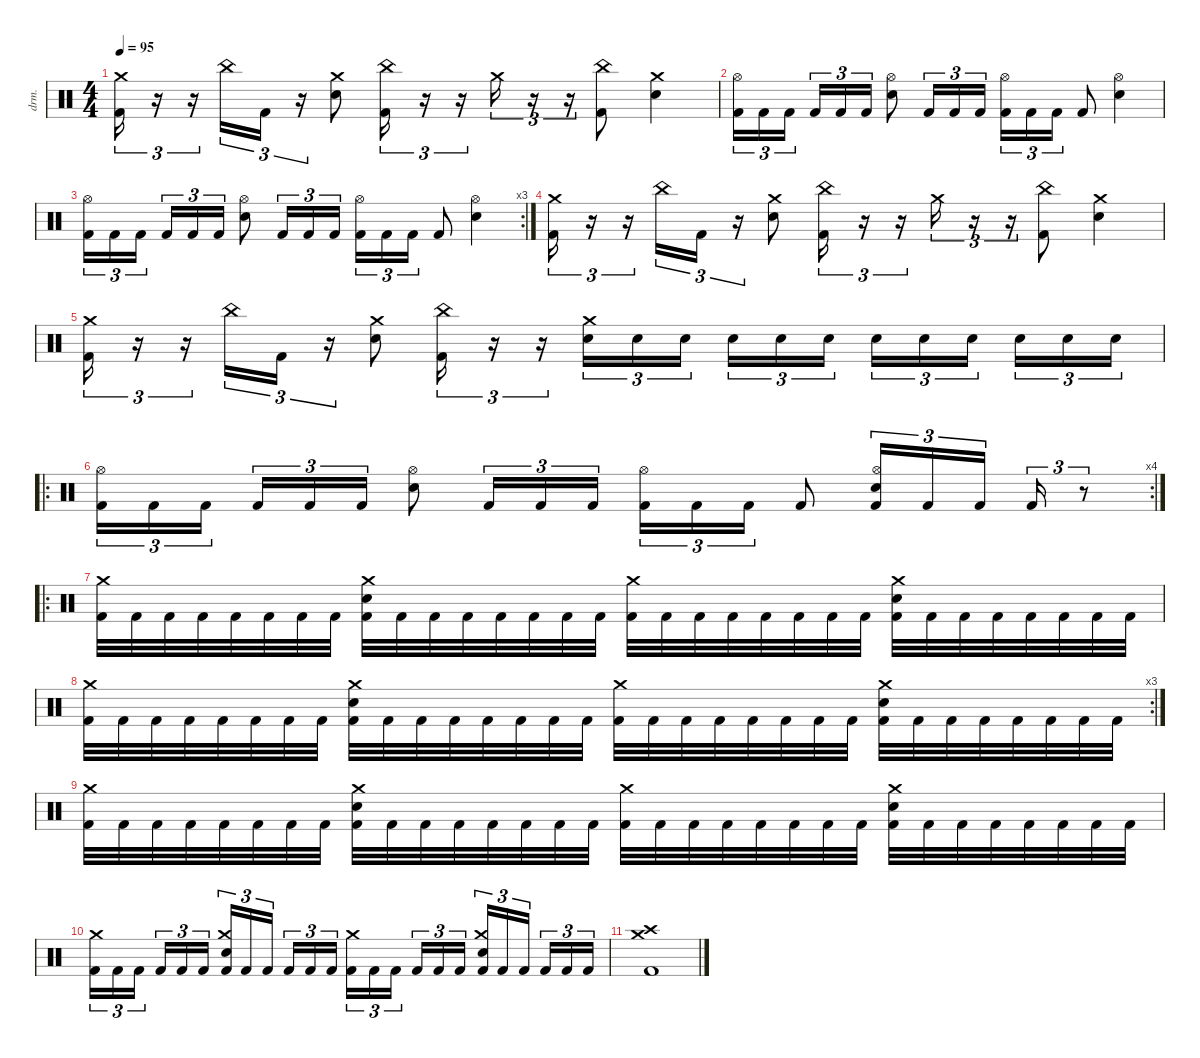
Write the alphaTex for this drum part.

\defaultSystemsLayout 4
\hideDynamics
\bracketExtendMode nobrackets
\otherSystemsTrackNameOrientation horizontal
\track ("FATTY!" "drm.") {instrument percussion}
\staff {score}
\articulation defaults
\ts (4 4)
\tempo 95
\clef neutral
\ks c
("Crash medium (hit)" "Kick (hit) 2").16{tu (3 2) dy f beam Down} r.16{tu (3 2) beam Down} r.16{tu (3 2) beam Down} "China (hit)".16{tu (3 2) beam Down} "Kick (hit) 2".16{tu (3 2) beam Down} r.16{tu (3 2) beam Down} ("Crash medium (hit)" "Snare (hit) 2").8{beam Down} ("China (hit)" "Kick (hit) 2").16{tu (3 2) beam Down} r.16{tu (3 2) beam Down} r.16{tu (3 2) beam Down} "Crash medium (hit)".16{tu (3 2) beam Down} r.16{tu (3 2) beam Down} r.16{tu (3 2) beam Down} ("China (hit)" "Kick (hit) 2").8{beam Down} ("Crash medium (hit)" "Snare (hit) 2").4{beam Down} |
("Hi-Hat (open)" "Kick (hit) 2").16{tu (3 2) beam Down} "Kick (hit) 2".16{tu (3 2) beam Down} "Kick (hit) 2".16{tu (3 2) beam Down} "Kick (hit) 2".16{tu (3 2) beam Up} "Kick (hit) 2".16{tu (3 2) beam Up} "Kick (hit) 2".16{tu (3 2) beam Up} ("Hi-Hat (open)" "Snare (hit) 2").8{beam Down} "Kick (hit) 2".16{tu (3 2) beam Up} "Kick (hit) 2".16{tu (3 2) beam Up} "Kick (hit) 2".16{tu (3 2) beam Up} ("Hi-Hat (open)" "Kick (hit) 2").16{tu (3 2) beam Down} "Kick (hit) 2".16{tu (3 2) beam Down} "Kick (hit) 2".16{tu (3 2) beam Down} "Kick (hit) 2".8{beam Up} ("Hi-Hat (open)" "Snare (hit) 2").4{beam Down} |
\rc 3
("Hi-Hat (open)" "Kick (hit) 2").16{tu (3 2) beam Down} "Kick (hit) 2".16{tu (3 2) beam Down} "Kick (hit) 2".16{tu (3 2) beam Down} "Kick (hit) 2".16{tu (3 2) beam Up} "Kick (hit) 2".16{tu (3 2) beam Up} "Kick (hit) 2".16{tu (3 2) beam Up} ("Hi-Hat (open)" "Snare (hit) 2").8{beam Down} "Kick (hit) 2".16{tu (3 2) beam Up} "Kick (hit) 2".16{tu (3 2) beam Up} "Kick (hit) 2".16{tu (3 2) beam Up} ("Hi-Hat (open)" "Kick (hit) 2").16{tu (3 2) beam Down} "Kick (hit) 2".16{tu (3 2) beam Down} "Kick (hit) 2".16{tu (3 2) beam Down} "Kick (hit) 2".8{beam Up} ("Hi-Hat (open)" "Snare (hit) 2").4{beam Down} |
("Crash medium (hit)" "Kick (hit) 2").16{tu (3 2) beam Down} r.16{tu (3 2) beam Down} r.16{tu (3 2) beam Down} "China (hit)".16{tu (3 2) beam Down} "Kick (hit) 2".16{tu (3 2) beam Down} r.16{tu (3 2) beam Down} ("Crash medium (hit)" "Snare (hit) 2").8{beam Down} ("China (hit)" "Kick (hit) 2").16{tu (3 2) beam Down} r.16{tu (3 2) beam Down} r.16{tu (3 2) beam Down} "Crash medium (hit)".16{tu (3 2) beam Down} r.16{tu (3 2) beam Down} r.16{tu (3 2) beam Down} ("China (hit)" "Kick (hit) 2").8{beam Down} ("Crash medium (hit)" "Snare (hit) 2").4{beam Down} |
("Crash medium (hit)" "Kick (hit) 2").16{tu (3 2) beam Down} r.16{tu (3 2) beam Down} r.16{tu (3 2) beam Down} "China (hit)".16{tu (3 2) beam Down} "Kick (hit) 2".16{tu (3 2) beam Down} r.16{tu (3 2) beam Down} ("Crash medium (hit)" "Snare (hit) 2").8{beam Down} ("China (hit)" "Kick (hit) 2").16{tu (3 2) beam Down} r.16{tu (3 2) beam Down} r.16{tu (3 2) beam Down} ("Crash medium (hit)" "Snare (hit) 2").16{tu (3 2) beam Down} "Snare (hit) 2".16{tu (3 2) beam Down} "Snare (hit) 2".16{tu (3 2) beam Down} "Snare (hit) 2".16{tu (3 2) beam Down} "Snare (hit) 2".16{tu (3 2) beam Down} "Snare (hit) 2".16{tu (3 2) beam Down} "Snare (hit) 2".16{tu (3 2) beam Down} "Snare (hit) 2".16{tu (3 2) beam Down} "Snare (hit) 2".16{tu (3 2) beam Down} "Snare (hit) 2".16{tu (3 2) beam Down} "Snare (hit) 2".16{tu (3 2) beam Down} "Snare (hit) 2".16{tu (3 2) beam Down} |
\ro
\rc 4
("Hi-Hat (open)" "Kick (hit) 2").16{tu (3 2) beam Down} "Kick (hit) 2".16{tu (3 2) beam Down} "Kick (hit) 2".16{tu (3 2) beam Down} "Kick (hit) 2".16{tu (3 2) beam Up} "Kick (hit) 2".16{tu (3 2) beam Up} "Kick (hit) 2".16{tu (3 2) beam Up} ("Hi-Hat (open)" "Snare (hit) 2").8{beam Down} "Kick (hit) 2".16{tu (3 2) beam Up} "Kick (hit) 2".16{tu (3 2) beam Up} "Kick (hit) 2".16{tu (3 2) beam Up} ("Hi-Hat (open)" "Kick (hit) 2").16{tu (3 2) beam Down} "Kick (hit) 2".16{tu (3 2) beam Down} "Kick (hit) 2".16{tu (3 2) beam Down} "Kick (hit) 2".8{beam Up} ("Hi-Hat (open)" "Snare (hit) 2" "Kick (hit) 2").16{tu (3 2) beam Up} "Kick (hit) 2".16{tu (3 2) beam Up} "Kick (hit) 2".16{tu (3 2) beam Up} "Kick (hit) 2".16{tu (3 2) beam Up} r.8{tu (3 2) beam Up} |
\ro
("Crash medium (hit)" "Kick (hit) 2").32{beam Down} "Kick (hit) 2".32{beam Down} "Kick (hit) 2".32{beam Down} "Kick (hit) 2".32{beam Down} "Kick (hit) 2".32{beam Down} "Kick (hit) 2".32{beam Down} "Kick (hit) 2".32{beam Down} "Kick (hit) 2".32{beam Down} ("Crash medium (hit)" "Snare (hit) 2" "Kick (hit) 2").32{beam Down} "Kick (hit) 2".32{beam Down} "Kick (hit) 2".32{beam Down} "Kick (hit) 2".32{beam Down} "Kick (hit) 2".32{beam Down} "Kick (hit) 2".32{beam Down} "Kick (hit) 2".32{beam Down} "Kick (hit) 2".32{beam Down} ("Crash medium (hit)" "Kick (hit) 2").32{beam Down} "Kick (hit) 2".32{beam Down} "Kick (hit) 2".32{beam Down} "Kick (hit) 2".32{beam Down} "Kick (hit) 2".32{beam Down} "Kick (hit) 2".32{beam Down} "Kick (hit) 2".32{beam Down} "Kick (hit) 2".32{beam Down} ("Crash medium (hit)" "Snare (hit) 2" "Kick (hit) 2").32{beam Down} "Kick (hit) 2".32{beam Down} "Kick (hit) 2".32{beam Down} "Kick (hit) 2".32{beam Down} "Kick (hit) 2".32{beam Down} "Kick (hit) 2".32{beam Down} "Kick (hit) 2".32{beam Down} "Kick (hit) 2".32{beam Down} |
\rc 3
("Crash medium (hit)" "Kick (hit) 2").32{beam Down} "Kick (hit) 2".32{beam Down} "Kick (hit) 2".32{beam Down} "Kick (hit) 2".32{beam Down} "Kick (hit) 2".32{beam Down} "Kick (hit) 2".32{beam Down} "Kick (hit) 2".32{beam Down} "Kick (hit) 2".32{beam Down} ("Crash medium (hit)" "Snare (hit) 2" "Kick (hit) 2").32{beam Down} "Kick (hit) 2".32{beam Down} "Kick (hit) 2".32{beam Down} "Kick (hit) 2".32{beam Down} "Kick (hit) 2".32{beam Down} "Kick (hit) 2".32{beam Down} "Kick (hit) 2".32{beam Down} "Kick (hit) 2".32{beam Down} ("Crash medium (hit)" "Kick (hit) 2").32{beam Down} "Kick (hit) 2".32{beam Down} "Kick (hit) 2".32{beam Down} "Kick (hit) 2".32{beam Down} "Kick (hit) 2".32{beam Down} "Kick (hit) 2".32{beam Down} "Kick (hit) 2".32{beam Down} "Kick (hit) 2".32{beam Down} ("Crash medium (hit)" "Snare (hit) 2" "Kick (hit) 2").32{beam Down} "Kick (hit) 2".32{beam Down} "Kick (hit) 2".32{beam Down} "Kick (hit) 2".32{beam Down} "Kick (hit) 2".32{beam Down} "Kick (hit) 2".32{beam Down} "Kick (hit) 2".32{beam Down} "Kick (hit) 2".32{beam Down} |
("Crash medium (hit)" "Kick (hit) 2").32{beam Down} "Kick (hit) 2".32{beam Down} "Kick (hit) 2".32{beam Down} "Kick (hit) 2".32{beam Down} "Kick (hit) 2".32{beam Down} "Kick (hit) 2".32{beam Down} "Kick (hit) 2".32{beam Down} "Kick (hit) 2".32{beam Down} ("Crash medium (hit)" "Snare (hit) 2" "Kick (hit) 2").32{beam Down} "Kick (hit) 2".32{beam Down} "Kick (hit) 2".32{beam Down} "Kick (hit) 2".32{beam Down} "Kick (hit) 2".32{beam Down} "Kick (hit) 2".32{beam Down} "Kick (hit) 2".32{beam Down} "Kick (hit) 2".32{beam Down} ("Crash medium (hit)" "Kick (hit) 2").32{beam Down} "Kick (hit) 2".32{beam Down} "Kick (hit) 2".32{beam Down} "Kick (hit) 2".32{beam Down} "Kick (hit) 2".32{beam Down} "Kick (hit) 2".32{beam Down} "Kick (hit) 2".32{beam Down} "Kick (hit) 2".32{beam Down} ("Crash medium (hit)" "Snare (hit) 2" "Kick (hit) 2").32{beam Down} "Kick (hit) 2".32{beam Down} "Kick (hit) 2".32{beam Down} "Kick (hit) 2".32{beam Down} "Kick (hit) 2".32{beam Down} "Kick (hit) 2".32{beam Down} "Kick (hit) 2".32{beam Down} "Kick (hit) 2".32{beam Down} |
("Crash medium (hit)" "Kick (hit) 2").16{tu (3 2) beam Down} "Kick (hit) 2".16{tu (3 2) beam Down} "Kick (hit) 2".16{tu (3 2) beam Down} "Kick (hit) 2".16{tu (3 2) beam Up} "Kick (hit) 2".16{tu (3 2) beam Up} "Kick (hit) 2".16{tu (3 2) beam Up} ("Crash medium (hit)" "Snare (hit) 2" "Kick (hit) 2").16{tu (3 2) beam Up} "Kick (hit) 2".16{tu (3 2) beam Up} "Kick (hit) 2".16{tu (3 2) beam Up} "Kick (hit) 2".16{tu (3 2) beam Up} "Kick (hit) 2".16{tu (3 2) beam Up} "Kick (hit) 2".16{tu (3 2) beam Up} ("Crash medium (hit)" "Kick (hit) 2").16{tu (3 2) beam Down} "Kick (hit) 2".16{tu (3 2) beam Down} "Kick (hit) 2".16{tu (3 2) beam Down} "Kick (hit) 2".16{tu (3 2) beam Up} "Kick (hit) 2".16{tu (3 2) beam Up} "Kick (hit) 2".16{tu (3 2) beam Up} ("Crash medium (hit)" "Snare (hit) 2" "Kick (hit) 2").16{tu (3 2) beam Up} "Kick (hit) 2".16{tu (3 2) beam Up} "Kick (hit) 2".16{tu (3 2) beam Up} "Kick (hit) 2".16{tu (3 2) beam Up} "Kick (hit) 2".16{tu (3 2) beam Up} "Kick (hit) 2".16{tu (3 2) beam Up} |
("Crash medium (hit)" "Crash high (hit)" "Kick (hit) 2").1{beam Down}
